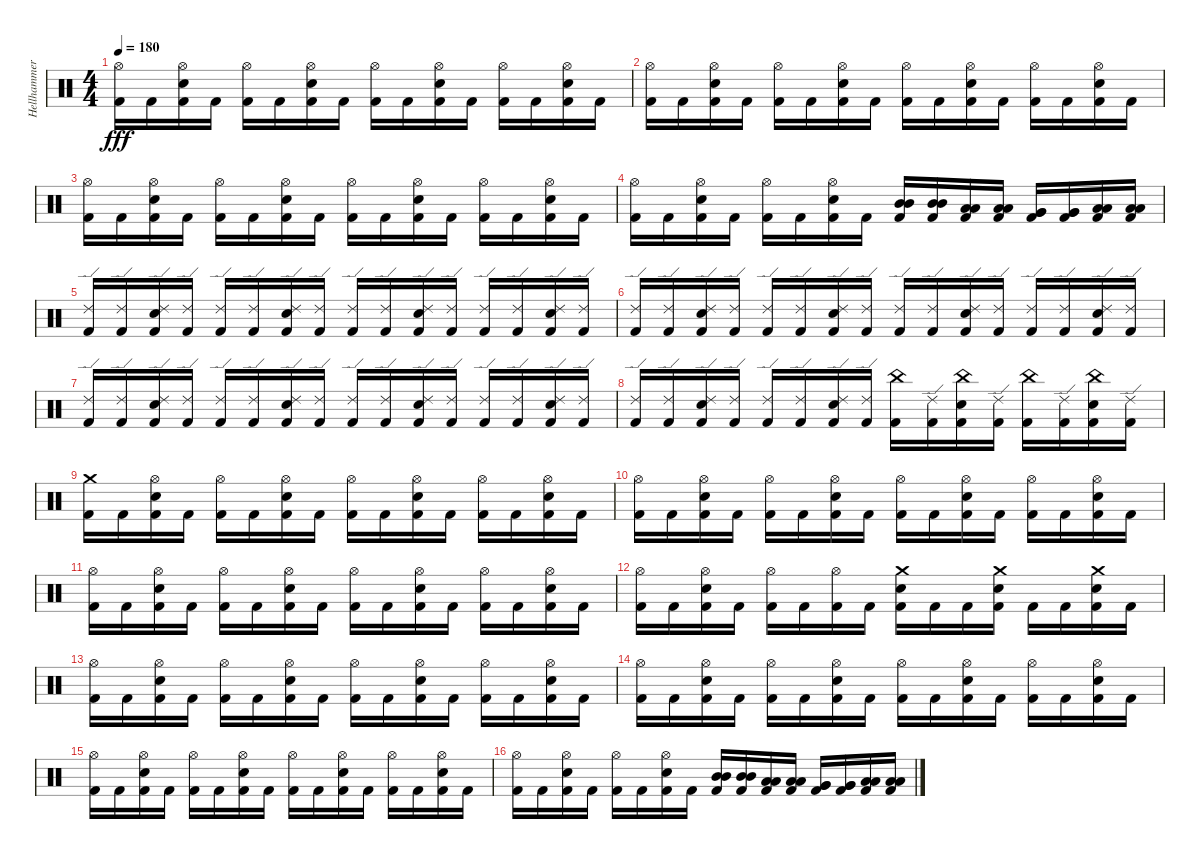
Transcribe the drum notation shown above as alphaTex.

\track ("Hellhammer (Drums)" "Hellhammer") {instrument percussion}
\staff {score}
\articulation defaults
\ts (4 4)
\tempo 180
\clef neutral
\ks c
("Hi-Hat (open)" "Kick (hit) 2").16{dy fff} "Kick (hit) 2".16 ("Hi-Hat (open)" "Electric Snare (hit)" "Kick (hit) 2").16 "Kick (hit) 2".16 ("Hi-Hat (open)" "Kick (hit) 2").16 "Kick (hit) 2".16 ("Hi-Hat (open)" "Electric Snare (hit)" "Kick (hit) 2").16 "Kick (hit) 2".16 ("Hi-Hat (open)" "Kick (hit) 2").16 "Kick (hit) 2".16 ("Hi-Hat (open)" "Electric Snare (hit)" "Kick (hit) 2").16 "Kick (hit) 2".16 ("Hi-Hat (open)" "Kick (hit) 2").16 "Kick (hit) 2".16 ("Hi-Hat (open)" "Electric Snare (hit)" "Kick (hit) 2").16 "Kick (hit) 2".16 |
("Hi-Hat (open)" "Kick (hit) 2").16 "Kick (hit) 2".16 ("Hi-Hat (open)" "Electric Snare (hit)" "Kick (hit) 2").16 "Kick (hit) 2".16 ("Hi-Hat (open)" "Kick (hit) 2").16 "Kick (hit) 2".16 ("Hi-Hat (open)" "Electric Snare (hit)" "Kick (hit) 2").16 "Kick (hit) 2".16 ("Hi-Hat (open)" "Kick (hit) 2").16 "Kick (hit) 2".16 ("Hi-Hat (open)" "Electric Snare (hit)" "Kick (hit) 2").16 "Kick (hit) 2".16 ("Hi-Hat (open)" "Kick (hit) 2").16 "Kick (hit) 2".16 ("Hi-Hat (open)" "Electric Snare (hit)" "Kick (hit) 2").16 "Kick (hit) 2".16 |
("Hi-Hat (open)" "Kick (hit) 2").16 "Kick (hit) 2".16 ("Hi-Hat (open)" "Electric Snare (hit)" "Kick (hit) 2").16 "Kick (hit) 2".16 ("Hi-Hat (open)" "Kick (hit) 2").16 "Kick (hit) 2".16 ("Hi-Hat (open)" "Electric Snare (hit)" "Kick (hit) 2").16 "Kick (hit) 2".16 ("Hi-Hat (open)" "Kick (hit) 2").16 "Kick (hit) 2".16 ("Hi-Hat (open)" "Electric Snare (hit)" "Kick (hit) 2").16 "Kick (hit) 2".16 ("Hi-Hat (open)" "Kick (hit) 2").16 "Kick (hit) 2".16 ("Hi-Hat (open)" "Electric Snare (hit)" "Kick (hit) 2").16 "Kick (hit) 2".16 |
("Hi-Hat (open)" "Kick (hit) 2").16 "Kick (hit) 2".16 ("Hi-Hat (open)" "Electric Snare (hit)" "Kick (hit) 2").16 "Kick (hit) 2".16 ("Hi-Hat (open)" "Kick (hit) 2").16 "Kick (hit) 2".16 ("Hi-Hat (open)" "Electric Snare (hit)" "Kick (hit) 2").16 "Kick (hit) 2".16 ("Mid Tom (hit)" "Mid Tom (hit)" "Kick (hit) 2").16 ("Mid Tom (hit)" "Mid Tom (hit)" "Kick (hit) 2").16 ("Low Tom (hit)" "Low Tom (hit)" "Kick (hit) 2").16 ("Low Tom (hit)" "Low Tom (hit)" "Kick (hit) 2").16 ("Very Low Tom (hit)" "Very Low Tom (hit)" "Kick (hit) 2").16 ("Very Low Tom (hit)" "Very Low Tom (hit)" "Kick (hit) 2").16 ("Low Floor Tom (hit)" "Low Floor Tom (hit)" "Kick (hit) 2").16 ("Low Floor Tom (hit)" "Low Floor Tom (hit)" "Kick (hit) 2").16 |
("Ride (edge) 2" "Kick (hit) 2").16 ("Ride (edge) 2" "Kick (hit) 2").16 ("Ride (edge) 2" "Electric Snare (hit)" "Kick (hit) 2").16 ("Ride (edge) 2" "Kick (hit) 2").16 ("Ride (edge) 2" "Kick (hit) 2").16 ("Ride (edge) 2" "Kick (hit) 2").16 ("Ride (edge) 2" "Electric Snare (hit)" "Kick (hit) 2").16 ("Ride (edge) 2" "Kick (hit) 2").16 ("Ride (edge) 2" "Kick (hit) 2").16 ("Ride (edge) 2" "Kick (hit) 2").16 ("Ride (edge) 2" "Electric Snare (hit)" "Kick (hit) 2").16 ("Ride (edge) 2" "Kick (hit) 2").16 ("Ride (edge) 2" "Kick (hit) 2").16 ("Ride (edge) 2" "Kick (hit) 2").16 ("Ride (edge) 2" "Electric Snare (hit)" "Kick (hit) 2").16 ("Ride (edge) 2" "Kick (hit) 2").16 |
("Ride (edge) 2" "Kick (hit) 2").16 ("Ride (edge) 2" "Kick (hit) 2").16 ("Ride (edge) 2" "Electric Snare (hit)" "Kick (hit) 2").16 ("Ride (edge) 2" "Kick (hit) 2").16 ("Ride (edge) 2" "Kick (hit) 2").16 ("Ride (edge) 2" "Kick (hit) 2").16 ("Ride (edge) 2" "Electric Snare (hit)" "Kick (hit) 2").16 ("Ride (edge) 2" "Kick (hit) 2").16 ("Ride (edge) 2" "Kick (hit) 2").16 ("Ride (edge) 2" "Kick (hit) 2").16 ("Ride (edge) 2" "Electric Snare (hit)" "Kick (hit) 2").16 ("Ride (edge) 2" "Kick (hit) 2").16 ("Ride (edge) 2" "Kick (hit) 2").16 ("Ride (edge) 2" "Kick (hit) 2").16 ("Ride (edge) 2" "Electric Snare (hit)" "Kick (hit) 2").16 ("Ride (edge) 2" "Kick (hit) 2").16 |
("Ride (edge) 2" "Kick (hit) 2").16 ("Ride (edge) 2" "Kick (hit) 2").16 ("Ride (edge) 2" "Electric Snare (hit)" "Kick (hit) 2").16 ("Ride (edge) 2" "Kick (hit) 2").16 ("Ride (edge) 2" "Kick (hit) 2").16 ("Ride (edge) 2" "Kick (hit) 2").16 ("Ride (edge) 2" "Electric Snare (hit)" "Kick (hit) 2").16 ("Ride (edge) 2" "Kick (hit) 2").16 ("Ride (edge) 2" "Kick (hit) 2").16 ("Ride (edge) 2" "Kick (hit) 2").16 ("Ride (edge) 2" "Electric Snare (hit)" "Kick (hit) 2").16 ("Ride (edge) 2" "Kick (hit) 2").16 ("Ride (edge) 2" "Kick (hit) 2").16 ("Ride (edge) 2" "Kick (hit) 2").16 ("Ride (edge) 2" "Electric Snare (hit)" "Kick (hit) 2").16 ("Ride (edge) 2" "Kick (hit) 2").16 |
("Ride (edge) 2" "Kick (hit) 2").16 ("Ride (edge) 2" "Kick (hit) 2").16 ("Ride (edge) 2" "Electric Snare (hit)" "Kick (hit) 2").16 ("Ride (edge) 2" "Kick (hit) 2").16 ("Ride (edge) 2" "Kick (hit) 2").16 ("Ride (edge) 2" "Kick (hit) 2").16 ("Ride (edge) 2" "Electric Snare (hit)" "Kick (hit) 2").16 ("Ride (edge) 2" "Kick (hit) 2").16 ("China (hit)" "Kick (hit) 2").16 ("Ride (edge) 2" "Kick (hit) 2").16 ("China (hit)" "Electric Snare (hit)" "Kick (hit) 2").16 ("Ride (edge) 2" "Kick (hit) 2").16 ("China (hit)" "Kick (hit) 2").16 ("Ride (edge) 2" "Kick (hit) 2").16 ("China (hit)" "Electric Snare (hit)" "Kick (hit) 2").16 ("Ride (edge) 2" "Kick (hit) 2").16 |
("Crash medium (hit)" "Kick (hit) 2").16 "Kick (hit) 2".16 ("Hi-Hat (open)" "Electric Snare (hit)" "Kick (hit) 2").16 "Kick (hit) 2".16 ("Hi-Hat (open)" "Kick (hit) 2").16 "Kick (hit) 2".16 ("Hi-Hat (open)" "Electric Snare (hit)" "Kick (hit) 2").16 "Kick (hit) 2".16 ("Hi-Hat (open)" "Kick (hit) 2").16 "Kick (hit) 2".16 ("Hi-Hat (open)" "Electric Snare (hit)" "Kick (hit) 2").16 "Kick (hit) 2".16 ("Hi-Hat (open)" "Kick (hit) 2").16 "Kick (hit) 2".16 ("Hi-Hat (open)" "Electric Snare (hit)" "Kick (hit) 2").16 "Kick (hit) 2".16 |
("Hi-Hat (open)" "Kick (hit) 2").16 "Kick (hit) 2".16 ("Hi-Hat (open)" "Electric Snare (hit)" "Kick (hit) 2").16 "Kick (hit) 2".16 ("Hi-Hat (open)" "Kick (hit) 2").16 "Kick (hit) 2".16 ("Hi-Hat (open)" "Electric Snare (hit)" "Kick (hit) 2").16 "Kick (hit) 2".16 ("Hi-Hat (open)" "Kick (hit) 2").16 "Kick (hit) 2".16 ("Hi-Hat (open)" "Electric Snare (hit)" "Kick (hit) 2").16 "Kick (hit) 2".16 ("Hi-Hat (open)" "Kick (hit) 2").16 "Kick (hit) 2".16 ("Hi-Hat (open)" "Electric Snare (hit)" "Kick (hit) 2").16 "Kick (hit) 2".16 |
("Hi-Hat (open)" "Kick (hit) 2").16 "Kick (hit) 2".16 ("Hi-Hat (open)" "Electric Snare (hit)" "Kick (hit) 2").16 "Kick (hit) 2".16 ("Hi-Hat (open)" "Kick (hit) 2").16 "Kick (hit) 2".16 ("Hi-Hat (open)" "Electric Snare (hit)" "Kick (hit) 2").16 "Kick (hit) 2".16 ("Hi-Hat (open)" "Kick (hit) 2").16 "Kick (hit) 2".16 ("Hi-Hat (open)" "Electric Snare (hit)" "Kick (hit) 2").16 "Kick (hit) 2".16 ("Hi-Hat (open)" "Kick (hit) 2").16 "Kick (hit) 2".16 ("Hi-Hat (open)" "Electric Snare (hit)" "Kick (hit) 2").16 "Kick (hit) 2".16 |
("Hi-Hat (open)" "Kick (hit) 2").16 "Kick (hit) 2".16 ("Hi-Hat (open)" "Electric Snare (hit)" "Kick (hit) 2").16 "Kick (hit) 2".16 ("Hi-Hat (open)" "Kick (hit) 2").16 "Kick (hit) 2".16 ("Hi-Hat (open)" "Kick (hit) 2").16 "Kick (hit) 2".16 ("Crash medium (hit)" "Electric Snare (hit)" "Kick (hit) 2").16 "Kick (hit) 2".16 "Kick (hit) 2".16 ("Crash medium (hit)" "Electric Snare (hit)" "Kick (hit) 2").16 "Kick (hit) 2".16 "Kick (hit) 2".16 ("Crash medium (hit)" "Electric Snare (hit)" "Kick (hit) 2").16 "Kick (hit) 2".16 |
("Hi-Hat (open)" "Kick (hit) 2").16 "Kick (hit) 2".16 ("Hi-Hat (open)" "Electric Snare (hit)" "Kick (hit) 2").16 "Kick (hit) 2".16 ("Hi-Hat (open)" "Kick (hit) 2").16 "Kick (hit) 2".16 ("Hi-Hat (open)" "Electric Snare (hit)" "Kick (hit) 2").16 "Kick (hit) 2".16 ("Hi-Hat (open)" "Kick (hit) 2").16 "Kick (hit) 2".16 ("Hi-Hat (open)" "Electric Snare (hit)" "Kick (hit) 2").16 "Kick (hit) 2".16 ("Hi-Hat (open)" "Kick (hit) 2").16 "Kick (hit) 2".16 ("Hi-Hat (open)" "Electric Snare (hit)" "Kick (hit) 2").16 "Kick (hit) 2".16 |
("Hi-Hat (open)" "Kick (hit) 2").16 "Kick (hit) 2".16 ("Hi-Hat (open)" "Electric Snare (hit)" "Kick (hit) 2").16 "Kick (hit) 2".16 ("Hi-Hat (open)" "Kick (hit) 2").16 "Kick (hit) 2".16 ("Hi-Hat (open)" "Electric Snare (hit)" "Kick (hit) 2").16 "Kick (hit) 2".16 ("Hi-Hat (open)" "Kick (hit) 2").16 "Kick (hit) 2".16 ("Hi-Hat (open)" "Electric Snare (hit)" "Kick (hit) 2").16 "Kick (hit) 2".16 ("Hi-Hat (open)" "Kick (hit) 2").16 "Kick (hit) 2".16 ("Hi-Hat (open)" "Electric Snare (hit)" "Kick (hit) 2").16 "Kick (hit) 2".16 |
("Hi-Hat (open)" "Kick (hit) 2").16 "Kick (hit) 2".16 ("Hi-Hat (open)" "Electric Snare (hit)" "Kick (hit) 2").16 "Kick (hit) 2".16 ("Hi-Hat (open)" "Kick (hit) 2").16 "Kick (hit) 2".16 ("Hi-Hat (open)" "Electric Snare (hit)" "Kick (hit) 2").16 "Kick (hit) 2".16 ("Hi-Hat (open)" "Kick (hit) 2").16 "Kick (hit) 2".16 ("Hi-Hat (open)" "Electric Snare (hit)" "Kick (hit) 2").16 "Kick (hit) 2".16 ("Hi-Hat (open)" "Kick (hit) 2").16 "Kick (hit) 2".16 ("Hi-Hat (open)" "Electric Snare (hit)" "Kick (hit) 2").16 "Kick (hit) 2".16 |
("Hi-Hat (open)" "Kick (hit) 2").16 "Kick (hit) 2".16 ("Hi-Hat (open)" "Electric Snare (hit)" "Kick (hit) 2").16 "Kick (hit) 2".16 ("Hi-Hat (open)" "Kick (hit) 2").16 "Kick (hit) 2".16 ("Hi-Hat (open)" "Electric Snare (hit)" "Kick (hit) 2").16 "Kick (hit) 2".16 ("Mid Tom (hit)" "Mid Tom (hit)" "Kick (hit) 2").16 ("Mid Tom (hit)" "Mid Tom (hit)" "Kick (hit) 2").16 ("Low Tom (hit)" "Low Tom (hit)" "Kick (hit) 2").16 ("Low Tom (hit)" "Low Tom (hit)" "Kick (hit) 2").16 ("Very Low Tom (hit)" "Very Low Tom (hit)" "Kick (hit) 2").16 ("Very Low Tom (hit)" "Very Low Tom (hit)" "Kick (hit) 2").16 ("Low Floor Tom (hit)" "Low Floor Tom (hit)" "Kick (hit) 2").16 ("Low Floor Tom (hit)" "Low Floor Tom (hit)" "Kick (hit) 2").16
